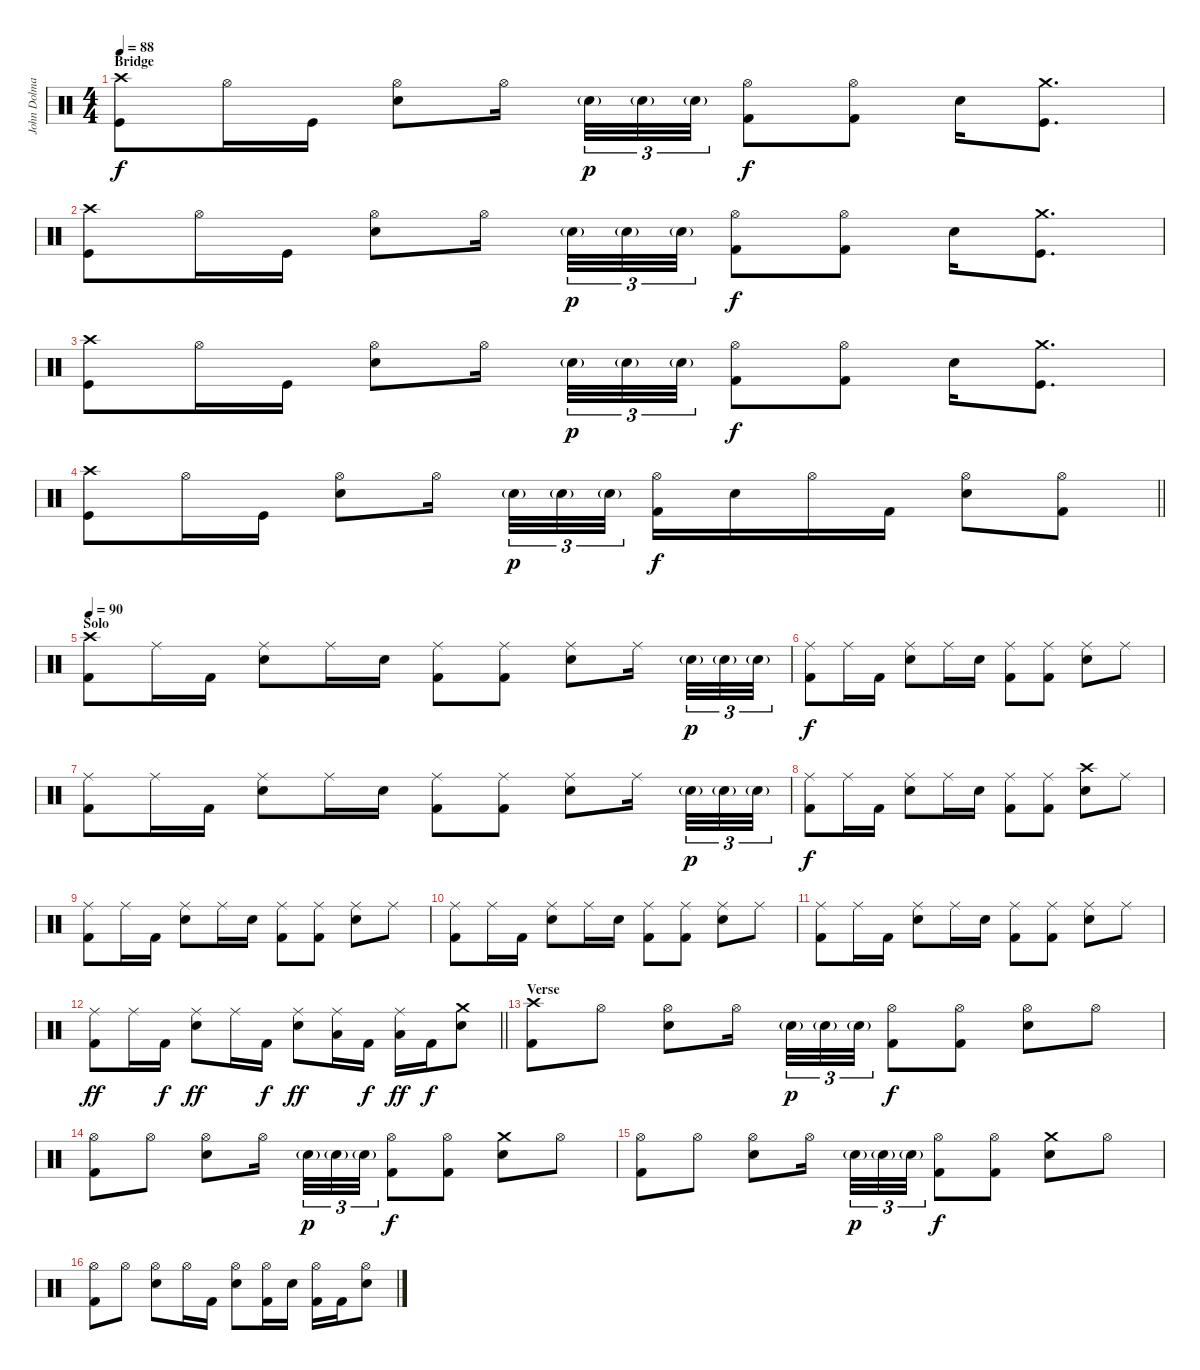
\track ("John Dolmayan" "John Dolma") {instrument percussion}
\staff {score}
\articulation defaults
\ts (4 4)
\section ("" "Bridge")
\tempo 88
\clef neutral
\ks c
("Crash high (hit)" "Kick (hit)").8{dy f} "Hi-Hat (open)".16 "Kick (hit)".16 ("Hi-Hat (open)" "Snare (hit) 2").8 "Hi-Hat (open)".16{beam splitsecondary} "Snare (hit) 2"{g}.32{tu (3 2) dy p} "Snare (hit) 2"{g}.32{tu (3 2)} "Snare (hit) 2"{g}.32{tu (3 2)} ("Hi-Hat (open)" "Kick (hit) 2").8{dy f} ("Hi-Hat (open)" "Kick (hit) 2").8 "Snare (hit) 2".16 ("Crash medium (hit)" "Kick (hit)").8{d} |
("Crash high (hit)" "Kick (hit)").8 "Hi-Hat (open)".16 "Kick (hit)".16 ("Hi-Hat (open)" "Snare (hit) 2").8 "Hi-Hat (open)".16{beam splitsecondary} "Snare (hit) 2"{g}.32{tu (3 2) dy p} "Snare (hit) 2"{g}.32{tu (3 2)} "Snare (hit) 2"{g}.32{tu (3 2)} ("Hi-Hat (open)" "Kick (hit) 2").8{dy f} ("Hi-Hat (open)" "Kick (hit) 2").8 "Snare (hit) 2".16 ("Crash medium (hit)" "Kick (hit)").8{d} |
("Crash high (hit)" "Kick (hit)").8 "Hi-Hat (open)".16 "Kick (hit)".16 ("Hi-Hat (open)" "Snare (hit) 2").8 "Hi-Hat (open)".16{beam splitsecondary} "Snare (hit) 2"{g}.32{tu (3 2) dy p} "Snare (hit) 2"{g}.32{tu (3 2)} "Snare (hit) 2"{g}.32{tu (3 2)} ("Hi-Hat (open)" "Kick (hit) 2").8{dy f} ("Hi-Hat (open)" "Kick (hit) 2").8 "Snare (hit) 2".16 ("Crash medium (hit)" "Kick (hit)").8{d} |
\barLineRight lightlight
("Crash high (hit)" "Kick (hit)").8 "Hi-Hat (open)".16 "Kick (hit)".16 ("Hi-Hat (open)" "Snare (hit) 2").8 "Hi-Hat (open)".16{beam splitsecondary} "Snare (hit) 2"{g}.32{tu (3 2) dy p} "Snare (hit) 2"{g}.32{tu (3 2)} "Snare (hit) 2"{g}.32{tu (3 2)} ("Hi-Hat (open)" "Kick (hit) 2").16{dy f} "Snare (hit) 2".16 "Hi-Hat (open)".16 "Kick (hit) 2".16 ("Hi-Hat (open)" "Snare (hit) 2").8 ("Hi-Hat (open)" "Kick (hit) 2").8 |
\section ("" "Solo")
\tempo 90
("Crash high (hit)" "Kick (hit) 2").8 "Ride (middle)".16 "Kick (hit) 2".16 ("Ride (middle)" "Snare (hit) 2").8 "Ride (middle)".16 "Snare (hit) 2".16 ("Ride (middle)" "Kick (hit) 2").8 ("Ride (middle)" "Kick (hit) 2").8 ("Ride (middle)" "Snare (hit) 2").8 "Ride (middle)".16{beam splitsecondary} "Snare (hit) 2"{g}.32{tu (3 2) dy p} "Snare (hit) 2"{g}.32{tu (3 2)} "Snare (hit) 2"{g}.32{tu (3 2)} |
("Ride (middle)" "Kick (hit) 2").8{dy f} "Ride (middle)".16 "Kick (hit) 2".16 ("Ride (middle)" "Snare (hit) 2").8 "Ride (middle)".16 "Snare (hit) 2".16 ("Ride (middle)" "Kick (hit) 2").8 ("Ride (middle)" "Kick (hit) 2").8 ("Ride (middle)" "Snare (hit) 2").8 "Ride (middle)".8 |
("Ride (middle)" "Kick (hit) 2").8 "Ride (middle)".16 "Kick (hit) 2".16 ("Ride (middle)" "Snare (hit) 2").8 "Ride (middle)".16 "Snare (hit) 2".16 ("Ride (middle)" "Kick (hit) 2").8 ("Ride (middle)" "Kick (hit) 2").8 ("Ride (middle)" "Snare (hit) 2").8 "Ride (middle)".16{beam splitsecondary} "Snare (hit) 2"{g}.32{tu (3 2) dy p} "Snare (hit) 2"{g}.32{tu (3 2)} "Snare (hit) 2"{g}.32{tu (3 2)} |
("Ride (middle)" "Kick (hit) 2").8{dy f} "Ride (middle)".16 "Kick (hit) 2".16 ("Ride (middle)" "Snare (hit) 2").8 "Ride (middle)".16 "Snare (hit) 2".16 ("Ride (middle)" "Kick (hit) 2").8 ("Ride (middle)" "Kick (hit) 2").8 ("Crash high (hit)" "Snare (hit) 2").8 "Ride (middle)".8 |
("Ride (middle)" "Kick (hit) 2").8 "Ride (middle)".16 "Kick (hit) 2".16 ("Ride (middle)" "Snare (hit) 2").8 "Ride (middle)".16 "Snare (hit) 2".16 ("Ride (middle)" "Kick (hit) 2").8 ("Ride (middle)" "Kick (hit) 2").8 ("Ride (middle)" "Snare (hit) 2").8 "Ride (middle)".8 |
("Ride (middle)" "Kick (hit) 2").8 "Ride (middle)".16 "Kick (hit) 2".16 ("Ride (middle)" "Snare (hit) 2").8 "Ride (middle)".16 "Snare (hit) 2".16 ("Ride (middle)" "Kick (hit) 2").8 ("Ride (middle)" "Kick (hit) 2").8 ("Ride (middle)" "Snare (hit) 2").8 "Ride (middle)".8 |
("Ride (middle)" "Kick (hit) 2").8 "Ride (middle)".16 "Kick (hit) 2".16 ("Ride (middle)" "Snare (hit) 2").8 "Ride (middle)".16 "Snare (hit) 2".16 ("Ride (middle)" "Kick (hit) 2").8 ("Ride (middle)" "Kick (hit) 2").8 ("Ride (middle)" "Snare (hit) 2").8 "Ride (middle)".8 |
\barLineRight lightlight
("Ride (middle)" "Kick (hit) 2").8{dy ff} "Ride (middle)".16 "Kick (hit) 2".16{dy f} ("Ride (middle)" "Snare (hit) 2").8{dy ff} "Ride (middle)".16 "Kick (hit) 2".16{dy f} ("Ride (middle)" "Snare (hit) 2").8{dy ff} ("Ride (middle)" "Low Tom (hit)").16 "Kick (hit) 2".16{dy f} ("Ride (middle)" "Low Floor Tom (hit)").16{dy ff} "Kick (hit) 2".16{dy f} ("Crash medium (hit)" "Snare (hit) 2").8 |
\section ("" "Verse")
("Crash high (hit)" "Kick (hit) 2").8 "Hi-Hat (open)".8 ("Hi-Hat (open)" "Snare (hit) 2").8 "Hi-Hat (open)".16{beam splitsecondary} "Snare (hit) 2"{g}.32{tu (3 2) dy p} "Snare (hit) 2"{g}.32{tu (3 2)} "Snare (hit) 2"{g}.32{tu (3 2)} ("Hi-Hat (open)" "Kick (hit) 2").8{dy f} ("Hi-Hat (open)" "Kick (hit) 2").8 ("Hi-Hat (open)" "Snare (hit) 2").8 "Hi-Hat (open)".8 |
("Hi-Hat (open)" "Kick (hit) 2").8 "Hi-Hat (open)".8 ("Hi-Hat (open)" "Snare (hit) 2").8 "Hi-Hat (open)".16{beam splitsecondary} "Snare (hit) 2"{g}.32{tu (3 2) dy p} "Snare (hit) 2"{g}.32{tu (3 2)} "Snare (hit) 2"{g}.32{tu (3 2)} ("Hi-Hat (open)" "Kick (hit) 2").8{dy f} ("Hi-Hat (open)" "Kick (hit) 2").8 ("Crash medium (hit)" "Snare (hit) 2").8 "Hi-Hat (open)".8 |
("Hi-Hat (open)" "Kick (hit) 2").8 "Hi-Hat (open)".8 ("Hi-Hat (open)" "Snare (hit) 2").8 "Hi-Hat (open)".16{beam splitsecondary} "Snare (hit) 2"{g}.32{tu (3 2) dy p} "Snare (hit) 2"{g}.32{tu (3 2)} "Snare (hit) 2"{g}.32{tu (3 2)} ("Hi-Hat (open)" "Kick (hit) 2").8{dy f} ("Hi-Hat (open)" "Kick (hit) 2").8 ("Crash medium (hit)" "Snare (hit) 2").8 "Hi-Hat (open)".8 |
("Hi-Hat (open)" "Kick (hit) 2").8 "Hi-Hat (open)".8 ("Hi-Hat (open)" "Snare (hit) 2").8 "Hi-Hat (open)".16 "Kick (hit) 2".16 ("Hi-Hat (open)" "Snare (hit) 2").8 ("Hi-Hat (open)" "Kick (hit) 2").16 "Snare (hit) 2".16 ("Hi-Hat (open)" "Kick (hit) 2").16 "Kick (hit) 2".16 ("Hi-Hat (open)" "Snare (hit) 2").8
